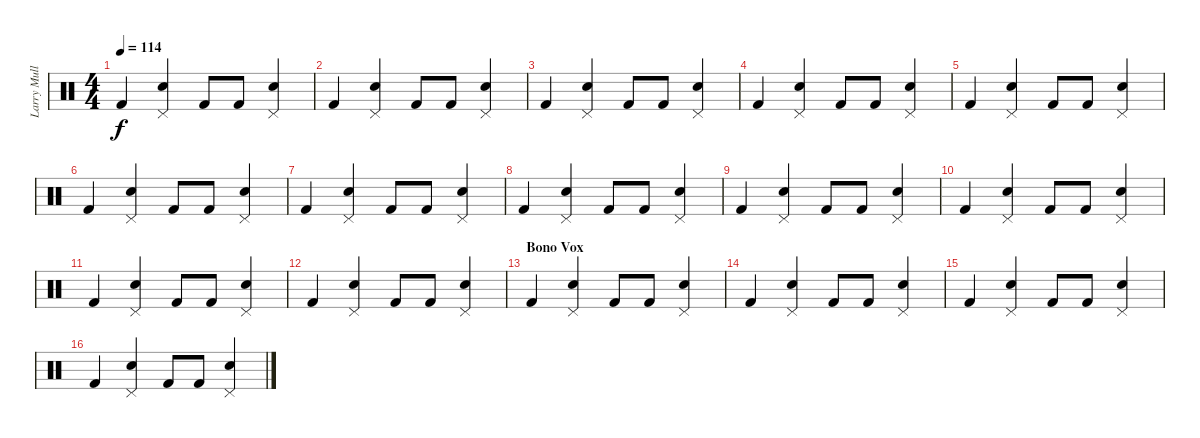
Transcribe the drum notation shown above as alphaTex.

\track ("Larry Mullen Jr Drums" "Larry Mull") {instrument percussion}
\staff {score}
\articulation defaults
\ts (4 4)
\tempo 114
\clef neutral
\ks c "Kick (hit) 2".4{dy f}
("Snare (hit) 2" "Pedal Hi-Hat (hit)").4 "Kick (hit) 2".8 "Kick (hit) 2".8 ("Snare (hit) 2" "Pedal Hi-Hat (hit)").4 |
"Kick (hit) 2".4 ("Snare (hit) 2" "Pedal Hi-Hat (hit)").4 "Kick (hit) 2".8 "Kick (hit) 2".8 ("Snare (hit) 2" "Pedal Hi-Hat (hit)").4 |
"Kick (hit) 2".4 ("Snare (hit) 2" "Pedal Hi-Hat (hit)").4 "Kick (hit) 2".8 "Kick (hit) 2".8 ("Snare (hit) 2" "Pedal Hi-Hat (hit)").4 |
"Kick (hit) 2".4 ("Snare (hit) 2" "Pedal Hi-Hat (hit)").4 "Kick (hit) 2".8 "Kick (hit) 2".8 ("Snare (hit) 2" "Pedal Hi-Hat (hit)").4 |
"Kick (hit) 2".4 ("Snare (hit) 2" "Pedal Hi-Hat (hit)").4 "Kick (hit) 2".8 "Kick (hit) 2".8 ("Snare (hit) 2" "Pedal Hi-Hat (hit)").4 |
"Kick (hit) 2".4 ("Snare (hit) 2" "Pedal Hi-Hat (hit)").4 "Kick (hit) 2".8 "Kick (hit) 2".8 ("Snare (hit) 2" "Pedal Hi-Hat (hit)").4 |
"Kick (hit) 2".4 ("Snare (hit) 2" "Pedal Hi-Hat (hit)").4 "Kick (hit) 2".8 "Kick (hit) 2".8 ("Snare (hit) 2" "Pedal Hi-Hat (hit)").4 |
"Kick (hit) 2".4 ("Snare (hit) 2" "Pedal Hi-Hat (hit)").4 "Kick (hit) 2".8 "Kick (hit) 2".8 ("Snare (hit) 2" "Pedal Hi-Hat (hit)").4 |
"Kick (hit) 2".4 ("Snare (hit) 2" "Pedal Hi-Hat (hit)").4 "Kick (hit) 2".8 "Kick (hit) 2".8 ("Snare (hit) 2" "Pedal Hi-Hat (hit)").4 |
"Kick (hit) 2".4 ("Snare (hit) 2" "Pedal Hi-Hat (hit)").4 "Kick (hit) 2".8 "Kick (hit) 2".8 ("Snare (hit) 2" "Pedal Hi-Hat (hit)").4 |
"Kick (hit) 2".4 ("Snare (hit) 2" "Pedal Hi-Hat (hit)").4 "Kick (hit) 2".8 "Kick (hit) 2".8 ("Snare (hit) 2" "Pedal Hi-Hat (hit)").4 |
"Kick (hit) 2".4 ("Snare (hit) 2" "Pedal Hi-Hat (hit)").4 "Kick (hit) 2".8 "Kick (hit) 2".8 ("Snare (hit) 2" "Pedal Hi-Hat (hit)").4 |
\section ("" "Bono Vox")
"Kick (hit) 2".4 ("Snare (hit) 2" "Pedal Hi-Hat (hit)").4 "Kick (hit) 2".8 "Kick (hit) 2".8 ("Snare (hit) 2" "Pedal Hi-Hat (hit)").4 |
"Kick (hit) 2".4 ("Snare (hit) 2" "Pedal Hi-Hat (hit)").4 "Kick (hit) 2".8 "Kick (hit) 2".8 ("Snare (hit) 2" "Pedal Hi-Hat (hit)").4 |
"Kick (hit) 2".4 ("Snare (hit) 2" "Pedal Hi-Hat (hit)").4 "Kick (hit) 2".8 "Kick (hit) 2".8 ("Snare (hit) 2" "Pedal Hi-Hat (hit)").4 |
"Kick (hit) 2".4 ("Snare (hit) 2" "Pedal Hi-Hat (hit)").4 "Kick (hit) 2".8 "Kick (hit) 2".8 ("Snare (hit) 2" "Pedal Hi-Hat (hit)").4
